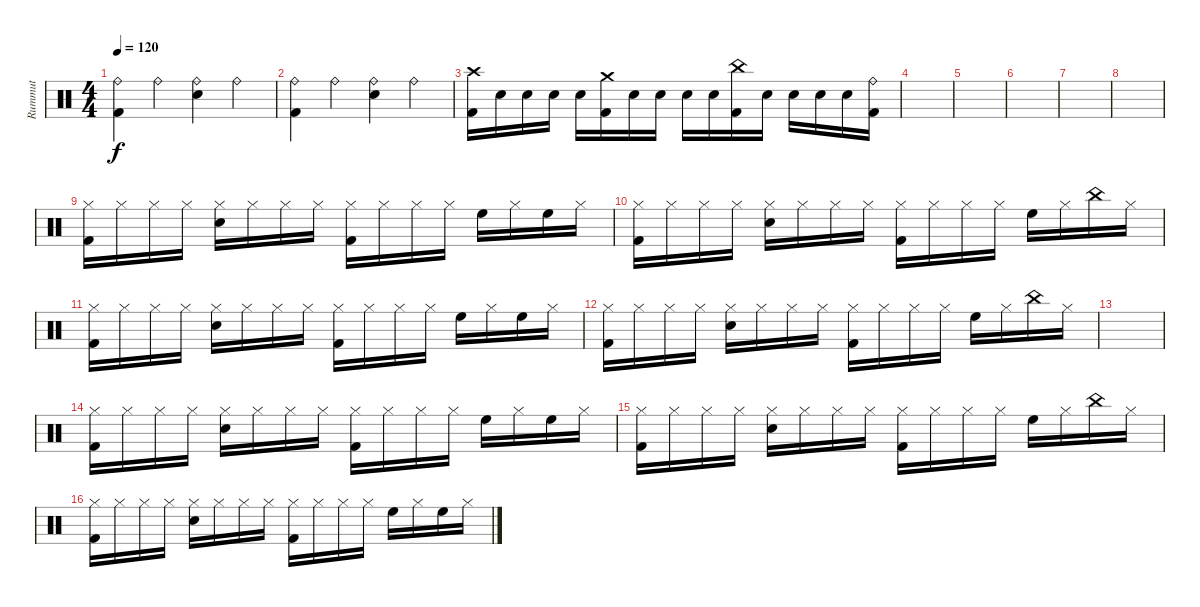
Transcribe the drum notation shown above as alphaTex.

\track ("Rummut" "Rummut") {instrument percussion}
\staff {score}
\articulation defaults
\ts (4 4)
\tempo 120
\clef neutral
\ks c
("Ride (bell)" "Kick (hit) 2").4{dy f} "Ride (bell)".4 ("Ride (bell)" "Snare (hit) 2").4 "Ride (bell)".4 |
("Ride (bell)" "Kick (hit) 2").4 "Ride (bell)".4 ("Ride (bell)" "Snare (hit) 2").4 "Ride (bell)".4 |
("Crash high (hit)" "Kick (hit) 2").16 "Snare (hit) 2".16 "Snare (hit) 2".16 "Snare (hit) 2".16 "Snare (hit) 2".16 ("Crash medium (hit)" "Kick (hit) 2").16 "Snare (hit) 2".16 "Snare (hit) 2".16 "Snare (hit) 2".16 "Snare (hit) 2".16 ("China (hit)" "Kick (hit) 2").16 "Snare (hit) 2".16 "Snare (hit) 2".16 "Snare (hit) 2".16 "Snare (hit) 2".16 ("Ride (bell)" "Kick (hit) 2").16 |
|
|
|
|
|
("Hi-Hat (closed)" "Kick (hit) 2").16 "Hi-Hat (closed)".16 "Hi-Hat (closed)".16 "Hi-Hat (closed)".16 ("Hi-Hat (closed)" "Snare (hit) 2").16 "Hi-Hat (closed)".16 "Hi-Hat (closed)".16 "Hi-Hat (closed)".16 ("Hi-Hat (closed)" "Kick (hit) 2").16 "Hi-Hat (closed)".16 "Hi-Hat (closed)".16 "Hi-Hat (closed)".16 "High Floor Tom (hit)".16 "Hi-Hat (closed)".16 "High Floor Tom (hit)".16 "Hi-Hat (closed)".16 |
("Hi-Hat (closed)" "Kick (hit) 2").16 "Hi-Hat (closed)".16 "Hi-Hat (closed)".16 "Hi-Hat (closed)".16 ("Hi-Hat (closed)" "Snare (hit) 2").16 "Hi-Hat (closed)".16 "Hi-Hat (closed)".16 "Hi-Hat (closed)".16 ("Hi-Hat (closed)" "Kick (hit) 2").16 "Hi-Hat (closed)".16 "Hi-Hat (closed)".16 "Hi-Hat (closed)".16 "High Floor Tom (hit)".16 "Hi-Hat (closed)".16 "China (hit)".16 "Hi-Hat (closed)".16 |
("Hi-Hat (closed)" "Kick (hit) 2").16 "Hi-Hat (closed)".16 "Hi-Hat (closed)".16 "Hi-Hat (closed)".16 ("Hi-Hat (closed)" "Snare (hit) 2").16 "Hi-Hat (closed)".16 "Hi-Hat (closed)".16 "Hi-Hat (closed)".16 ("Hi-Hat (closed)" "Kick (hit) 2").16 "Hi-Hat (closed)".16 "Hi-Hat (closed)".16 "Hi-Hat (closed)".16 "High Floor Tom (hit)".16 "Hi-Hat (closed)".16 "High Floor Tom (hit)".16 "Hi-Hat (closed)".16 |
("Hi-Hat (closed)" "Kick (hit) 2").16 "Hi-Hat (closed)".16 "Hi-Hat (closed)".16 "Hi-Hat (closed)".16 ("Hi-Hat (closed)" "Snare (hit) 2").16 "Hi-Hat (closed)".16 "Hi-Hat (closed)".16 "Hi-Hat (closed)".16 ("Hi-Hat (closed)" "Kick (hit) 2").16 "Hi-Hat (closed)".16 "Hi-Hat (closed)".16 "Hi-Hat (closed)".16 "High Floor Tom (hit)".16 "Hi-Hat (closed)".16 "China (hit)".16 "Hi-Hat (closed)".16 |
|
("Hi-Hat (closed)" "Kick (hit) 2").16 "Hi-Hat (closed)".16 "Hi-Hat (closed)".16 "Hi-Hat (closed)".16 ("Hi-Hat (closed)" "Snare (hit) 2").16 "Hi-Hat (closed)".16 "Hi-Hat (closed)".16 "Hi-Hat (closed)".16 ("Hi-Hat (closed)" "Kick (hit) 2").16 "Hi-Hat (closed)".16 "Hi-Hat (closed)".16 "Hi-Hat (closed)".16 "High Floor Tom (hit)".16 "Hi-Hat (closed)".16 "High Floor Tom (hit)".16 "Hi-Hat (closed)".16 |
("Hi-Hat (closed)" "Kick (hit) 2").16 "Hi-Hat (closed)".16 "Hi-Hat (closed)".16 "Hi-Hat (closed)".16 ("Hi-Hat (closed)" "Snare (hit) 2").16 "Hi-Hat (closed)".16 "Hi-Hat (closed)".16 "Hi-Hat (closed)".16 ("Hi-Hat (closed)" "Kick (hit) 2").16 "Hi-Hat (closed)".16 "Hi-Hat (closed)".16 "Hi-Hat (closed)".16 "High Floor Tom (hit)".16 "Hi-Hat (closed)".16 "China (hit)".16 "Hi-Hat (closed)".16 |
("Hi-Hat (closed)" "Kick (hit) 2").16 "Hi-Hat (closed)".16 "Hi-Hat (closed)".16 "Hi-Hat (closed)".16 ("Hi-Hat (closed)" "Snare (hit) 2").16 "Hi-Hat (closed)".16 "Hi-Hat (closed)".16 "Hi-Hat (closed)".16 ("Hi-Hat (closed)" "Kick (hit) 2").16 "Hi-Hat (closed)".16 "Hi-Hat (closed)".16 "Hi-Hat (closed)".16 "High Floor Tom (hit)".16 "Hi-Hat (closed)".16 "High Floor Tom (hit)".16 "Hi-Hat (closed)".16
